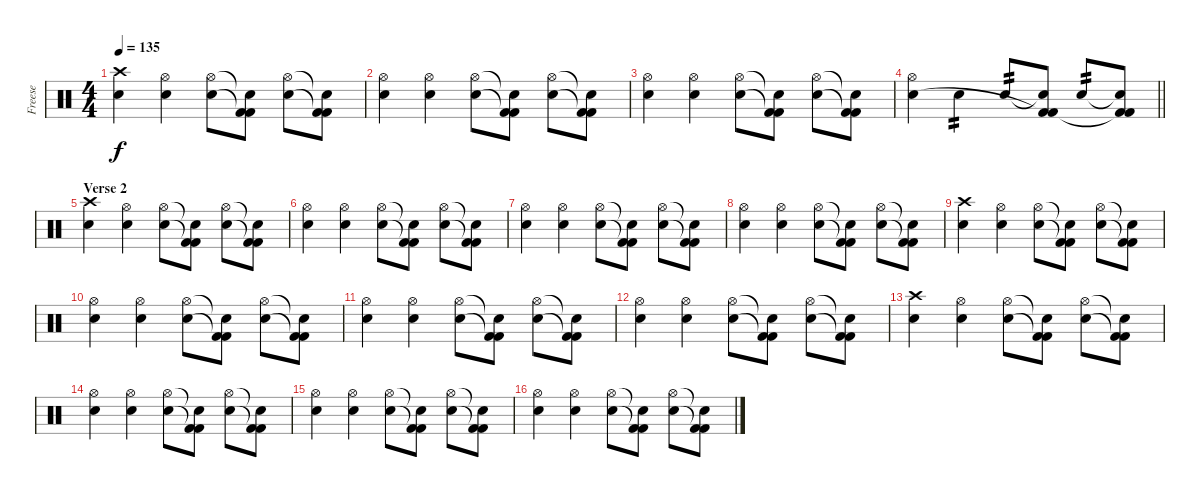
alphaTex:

\track ("Freese" "Freese") {instrument percussion}
\staff {score}
\articulation defaults
\ts (4 4)
\tempo 135
\clef neutral
\ks c
("Crash high (hit)" "Electric Snare (hit)").4{dy f} ("Hi-Hat (open)" "Electric Snare (hit)").4 ("Hi-Hat (open)" "Electric Snare (hit)").8 ("Snare (hit)"{t} "Kick (hit) 2"{t} "Kick (hit) 2").8 ("Hi-Hat (open)" "Electric Snare (hit)").8 ("Snare (hit)"{t} "Kick (hit) 2"{t} "Kick (hit) 2").8 |
("Hi-Hat (open)" "Electric Snare (hit)").4 ("Hi-Hat (open)" "Electric Snare (hit)").4 ("Hi-Hat (open)" "Electric Snare (hit)").8 ("Snare (hit)"{t} "Kick (hit) 2"{t} "Kick (hit) 2").8 ("Hi-Hat (open)" "Electric Snare (hit)").8 ("Snare (hit)"{t} "Kick (hit) 2"{t} "Kick (hit) 2").8 |
("Hi-Hat (open)" "Electric Snare (hit)").4 ("Hi-Hat (open)" "Electric Snare (hit)").4 ("Hi-Hat (open)" "Electric Snare (hit)").8 ("Snare (hit)"{t} "Kick (hit) 2"{t} "Kick (hit) 2").8 ("Hi-Hat (open)" "Electric Snare (hit)").8 ("Snare (hit)"{t} "Kick (hit) 2"{t} "Kick (hit) 2").8 |
\barLineRight lightlight
("Hi-Hat (open)" "Electric Snare (hit)").4 "Electric Snare (hit)".4{tp 2} "Electric Snare (hit)".8{tp 2} ("Snare (hit)"{t} "Kick (hit) 2"{t} "Kick (hit) 2").8 "Electric Snare (hit)".8{tp 2} ("Snare (hit)"{t} "Kick (hit) 2"{t} "Kick (hit) 2").8 |
\section ("" "Verse 2")
("Crash high (hit)" "Electric Snare (hit)").4 ("Hi-Hat (open)" "Electric Snare (hit)").4 ("Hi-Hat (open)" "Electric Snare (hit)").8 ("Snare (hit)"{t} "Kick (hit) 2"{t} "Kick (hit) 2").8 ("Hi-Hat (open)" "Electric Snare (hit)").8 ("Snare (hit)"{t} "Kick (hit) 2"{t} "Kick (hit) 2").8 |
("Hi-Hat (open)" "Electric Snare (hit)").4 ("Hi-Hat (open)" "Electric Snare (hit)").4 ("Hi-Hat (open)" "Electric Snare (hit)").8 ("Snare (hit)"{t} "Kick (hit) 2"{t} "Kick (hit) 2").8 ("Hi-Hat (open)" "Electric Snare (hit)").8 ("Snare (hit)"{t} "Kick (hit) 2"{t} "Kick (hit) 2").8 |
("Hi-Hat (open)" "Electric Snare (hit)").4 ("Hi-Hat (open)" "Electric Snare (hit)").4 ("Hi-Hat (open)" "Electric Snare (hit)").8 ("Snare (hit)"{t} "Kick (hit) 2"{t} "Kick (hit) 2").8 ("Hi-Hat (open)" "Electric Snare (hit)").8 ("Snare (hit)"{t} "Kick (hit) 2"{t} "Kick (hit) 2").8 |
("Hi-Hat (open)" "Electric Snare (hit)").4 ("Hi-Hat (open)" "Electric Snare (hit)").4 ("Hi-Hat (open)" "Electric Snare (hit)").8 ("Snare (hit)"{t} "Kick (hit) 2"{t} "Kick (hit) 2").8 ("Hi-Hat (open)" "Electric Snare (hit)").8 ("Snare (hit)"{t} "Kick (hit) 2"{t} "Kick (hit) 2").8 |
("Crash high (hit)" "Electric Snare (hit)").4 ("Hi-Hat (open)" "Electric Snare (hit)").4 ("Hi-Hat (open)" "Electric Snare (hit)").8 ("Snare (hit)"{t} "Kick (hit) 2"{t} "Kick (hit) 2").8 ("Hi-Hat (open)" "Electric Snare (hit)").8 ("Snare (hit)"{t} "Kick (hit) 2"{t} "Kick (hit) 2").8 |
("Hi-Hat (open)" "Electric Snare (hit)").4 ("Hi-Hat (open)" "Electric Snare (hit)").4 ("Hi-Hat (open)" "Electric Snare (hit)").8 ("Snare (hit)"{t} "Kick (hit) 2"{t} "Kick (hit) 2").8 ("Hi-Hat (open)" "Electric Snare (hit)").8 ("Snare (hit)"{t} "Kick (hit) 2"{t} "Kick (hit) 2").8 |
("Hi-Hat (open)" "Electric Snare (hit)").4 ("Hi-Hat (open)" "Electric Snare (hit)").4 ("Hi-Hat (open)" "Electric Snare (hit)").8 ("Snare (hit)"{t} "Kick (hit) 2"{t} "Kick (hit) 2").8 ("Hi-Hat (open)" "Electric Snare (hit)").8 ("Snare (hit)"{t} "Kick (hit) 2"{t} "Kick (hit) 2").8 |
("Hi-Hat (open)" "Electric Snare (hit)").4 ("Hi-Hat (open)" "Electric Snare (hit)").4 ("Hi-Hat (open)" "Electric Snare (hit)").8 ("Snare (hit)"{t} "Kick (hit) 2"{t} "Kick (hit) 2").8 ("Hi-Hat (open)" "Electric Snare (hit)").8 ("Snare (hit)"{t} "Kick (hit) 2"{t} "Kick (hit) 2").8 |
("Crash high (hit)" "Electric Snare (hit)").4 ("Hi-Hat (open)" "Electric Snare (hit)").4 ("Hi-Hat (open)" "Electric Snare (hit)").8 ("Snare (hit)"{t} "Kick (hit) 2"{t} "Kick (hit) 2").8 ("Hi-Hat (open)" "Electric Snare (hit)").8 ("Snare (hit)"{t} "Kick (hit) 2"{t} "Kick (hit) 2").8 |
("Hi-Hat (open)" "Electric Snare (hit)").4 ("Hi-Hat (open)" "Electric Snare (hit)").4 ("Hi-Hat (open)" "Electric Snare (hit)").8 ("Snare (hit)"{t} "Kick (hit) 2"{t} "Kick (hit) 2").8 ("Hi-Hat (open)" "Electric Snare (hit)").8 ("Snare (hit)"{t} "Kick (hit) 2"{t} "Kick (hit) 2").8 |
("Hi-Hat (open)" "Electric Snare (hit)").4 ("Hi-Hat (open)" "Electric Snare (hit)").4 ("Hi-Hat (open)" "Electric Snare (hit)").8 ("Snare (hit)"{t} "Kick (hit) 2"{t} "Kick (hit) 2").8 ("Hi-Hat (open)" "Electric Snare (hit)").8 ("Snare (hit)"{t} "Kick (hit) 2"{t} "Kick (hit) 2").8 |
("Hi-Hat (open)" "Electric Snare (hit)").4 ("Hi-Hat (open)" "Electric Snare (hit)").4 ("Hi-Hat (open)" "Electric Snare (hit)").8 ("Snare (hit)"{t} "Kick (hit) 2"{t} "Kick (hit) 2").8 ("Hi-Hat (open)" "Electric Snare (hit)").8 ("Snare (hit)"{t} "Kick (hit) 2"{t} "Kick (hit) 2").8
